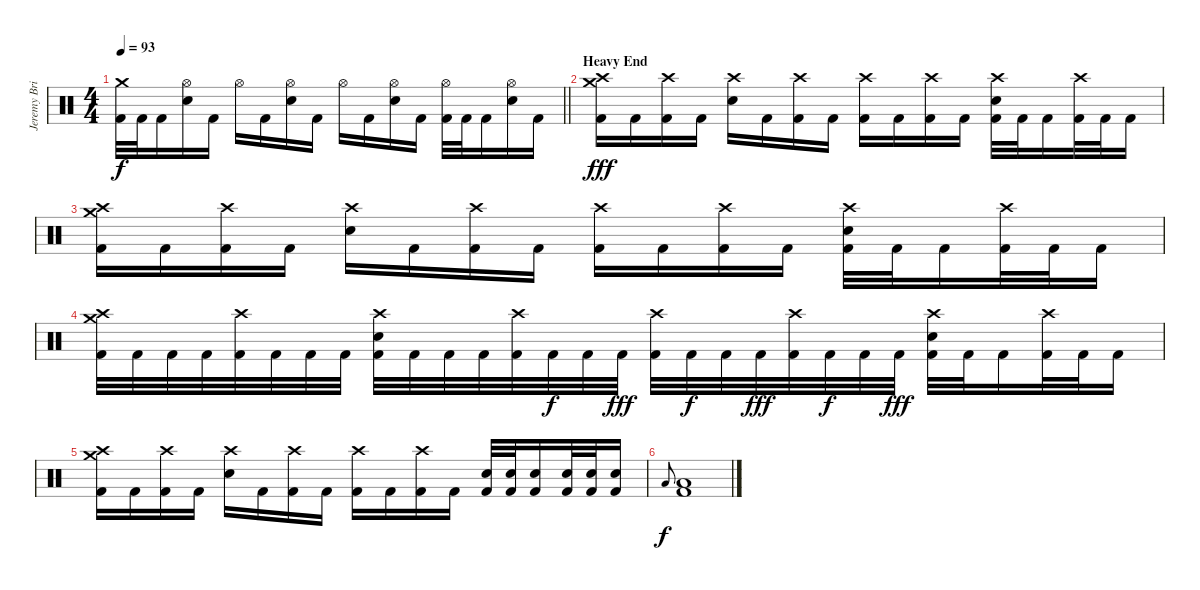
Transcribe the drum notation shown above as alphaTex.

\track ("Jeremy Brian [Drums]" "Jeremy Bri") {instrument percussion}
\staff {score}
\articulation defaults
\ts (4 4)
\tempo 93
\clef neutral
\barLineRight lightlight
\ks c
("Crash medium (hit)" "Kick (hit) 2").32{dy f} "Kick (hit) 2".32 "Kick (hit) 2".16 ("Hi-Hat (open)" "Electric Snare (hit)").16 "Kick (hit) 2".16 "Hi-Hat (open)".16 "Kick (hit) 2".16 ("Hi-Hat (open)" "Electric Snare (hit)").16 "Kick (hit) 2".16 "Hi-Hat (open)".16 "Kick (hit) 2".16 ("Hi-Hat (open)" "Electric Snare (hit)").16 "Kick (hit) 2".16 ("Hi-Hat (open)" "Kick (hit) 2").32 "Kick (hit) 2".32 "Kick (hit) 2".16 ("Hi-Hat (open)" "Electric Snare (hit)").16 "Kick (hit) 2".16 |
\section ("" "Heavy End")
("Crash high (hit)" "Crash medium (hit)" "Kick (hit) 2").16{dy fff} "Kick (hit) 2".16 ("Crash high (hit)" "Kick (hit) 2").16 "Kick (hit) 2".16 ("Crash high (hit)" "Electric Snare (hit)").16 "Kick (hit) 2".16 ("Crash high (hit)" "Kick (hit) 2").16 "Kick (hit) 2".16 ("Crash high (hit)" "Kick (hit) 2").16 "Kick (hit) 2".16 ("Crash high (hit)" "Kick (hit) 2").16 "Kick (hit) 2".16 ("Crash high (hit)" "Electric Snare (hit)" "Kick (hit) 2").32 "Kick (hit) 2".32 "Kick (hit) 2".16 ("Crash high (hit)" "Kick (hit) 2").32 "Kick (hit) 2".32 "Kick (hit) 2".16 |
("Crash high (hit)" "Crash medium (hit)" "Kick (hit) 2").16 "Kick (hit) 2".16 ("Crash high (hit)" "Kick (hit) 2").16 "Kick (hit) 2".16 ("Crash high (hit)" "Electric Snare (hit)").16 "Kick (hit) 2".16 ("Crash high (hit)" "Kick (hit) 2").16 "Kick (hit) 2".16 ("Crash high (hit)" "Kick (hit) 2").16 "Kick (hit) 2".16 ("Crash high (hit)" "Kick (hit) 2").16 "Kick (hit) 2".16 ("Crash high (hit)" "Electric Snare (hit)" "Kick (hit) 2").32 "Kick (hit) 2".32 "Kick (hit) 2".16 ("Crash high (hit)" "Kick (hit) 2").32 "Kick (hit) 2".32 "Kick (hit) 2".16 |
("Crash high (hit)" "Crash medium (hit)" "Kick (hit) 2").32 "Kick (hit) 2".32 "Kick (hit) 2".32 "Kick (hit) 2".32 ("Crash high (hit)" "Kick (hit) 2").32 "Kick (hit) 2".32 "Kick (hit) 2".32 "Kick (hit) 2".32 ("Crash high (hit)" "Electric Snare (hit)" "Kick (hit) 2").32 "Kick (hit) 2".32 "Kick (hit) 2".32 "Kick (hit) 2".32 ("Crash high (hit)" "Kick (hit) 2").32 "Kick (hit) 2".32{dy f} "Kick (hit) 2".32 "Kick (hit) 2".32{dy fff} ("Crash high (hit)" "Kick (hit) 2").32 "Kick (hit) 2".32{dy f} "Kick (hit) 2".32 "Kick (hit) 2".32{dy fff} ("Crash high (hit)" "Kick (hit) 2").32 "Kick (hit) 2".32{dy f} "Kick (hit) 2".32 "Kick (hit) 2".32{dy fff} ("Crash high (hit)" "Electric Snare (hit)" "Kick (hit) 2").32 "Kick (hit) 2".32 "Kick (hit) 2".16 ("Crash high (hit)" "Kick (hit) 2").32 "Kick (hit) 2".32 "Kick (hit) 2".16 |
("Crash high (hit)" "Crash medium (hit)" "Kick (hit) 2").16 "Kick (hit) 2".16 ("Crash high (hit)" "Kick (hit) 2").16 "Kick (hit) 2".16 ("Crash high (hit)" "Electric Snare (hit)").16 "Kick (hit) 2".16 ("Crash high (hit)" "Kick (hit) 2").16 "Kick (hit) 2".16 ("Crash high (hit)" "Kick (hit) 2").16 "Kick (hit) 2".16 ("Crash high (hit)" "Kick (hit) 2").16 "Kick (hit) 2".16 ("Electric Snare (hit)" "Kick (hit) 2").32 ("Electric Snare (hit)" "Kick (hit) 2").32 ("Electric Snare (hit)" "Kick (hit) 2").16 ("Electric Snare (hit)" "Kick (hit) 2").32 ("Electric Snare (hit)" "Kick (hit) 2").32 ("Electric Snare (hit)" "Kick (hit) 2").16 |
"Low Floor Tom (hit)".8{gr onbeat dy f} ("Low Floor Tom (hit)" "Kick (hit) 2").1
